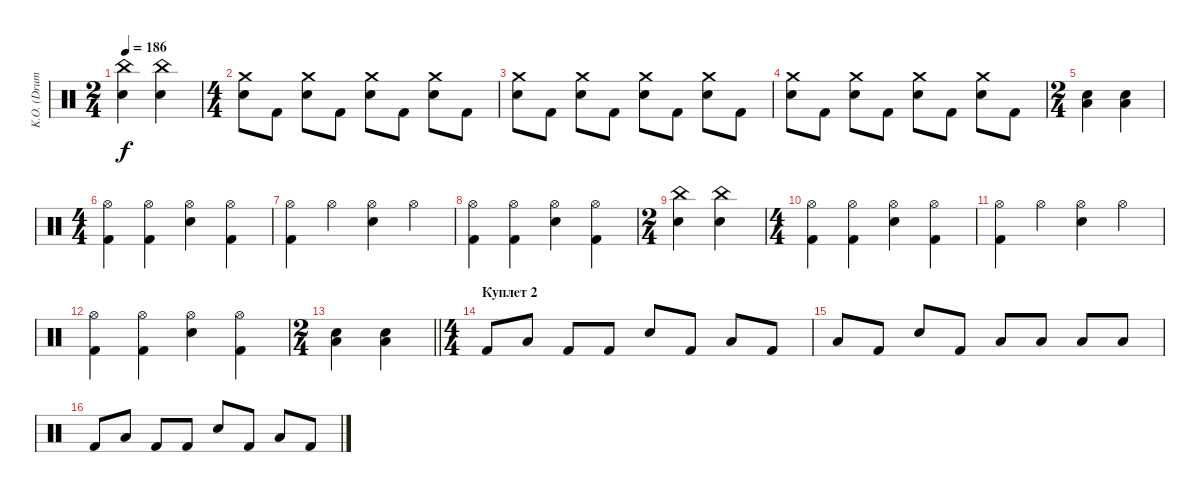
\track ("K.O. (Drums)" "K.O. (Drum") {instrument percussion}
\staff {score}
\articulation defaults
\ts (2 4)
\tempo 186
\clef neutral
\ks c
("China (hit)" "Electric Snare (hit)").4{dy f} ("China (hit)" "Electric Snare (hit)").4 |
\ts (4 4)
("Crash medium (hit)" "Electric Snare (hit)").8 "Kick (hit) 2".8 ("Crash medium (hit)" "Electric Snare (hit)").8 "Kick (hit) 2".8 ("Crash medium (hit)" "Electric Snare (hit)").8 "Kick (hit) 2".8 ("Crash medium (hit)" "Electric Snare (hit)").8 "Kick (hit) 2".8 |
("Crash medium (hit)" "Electric Snare (hit)").8 "Kick (hit) 2".8 ("Crash medium (hit)" "Electric Snare (hit)").8 "Kick (hit) 2".8 ("Crash medium (hit)" "Electric Snare (hit)").8 "Kick (hit) 2".8 ("Crash medium (hit)" "Electric Snare (hit)").8 "Kick (hit) 2".8 |
("Crash medium (hit)" "Electric Snare (hit)").8 "Kick (hit) 2".8 ("Crash medium (hit)" "Electric Snare (hit)").8 "Kick (hit) 2".8 ("Crash medium (hit)" "Electric Snare (hit)").8 "Kick (hit) 2".8 ("Crash medium (hit)" "Electric Snare (hit)").8 "Kick (hit) 2".8 |
\ts (2 4)
("Low Floor Tom (hit)" "Electric Snare (hit)").4 ("Low Floor Tom (hit)" "Electric Snare (hit)").4 |
\ts (4 4)
("Hi-Hat (open)" "Kick (hit) 2").4 ("Hi-Hat (open)" "Kick (hit) 2").4 ("Hi-Hat (open)" "Electric Snare (hit)").4 ("Hi-Hat (open)" "Kick (hit) 2").4 |
("Hi-Hat (open)" "Kick (hit) 2").4 "Hi-Hat (open)".4 ("Hi-Hat (open)" "Electric Snare (hit)").4 "Hi-Hat (open)".4 |
("Hi-Hat (open)" "Kick (hit) 2").4 ("Hi-Hat (open)" "Kick (hit) 2").4 ("Hi-Hat (open)" "Electric Snare (hit)").4 ("Hi-Hat (open)" "Kick (hit) 2").4 |
\ts (2 4)
("China (hit)" "Electric Snare (hit)").4 ("China (hit)" "Electric Snare (hit)").4 |
\ts (4 4)
("Hi-Hat (open)" "Kick (hit) 2").4 ("Hi-Hat (open)" "Kick (hit) 2").4 ("Hi-Hat (open)" "Electric Snare (hit)").4 ("Hi-Hat (open)" "Kick (hit) 2").4 |
("Hi-Hat (open)" "Kick (hit) 2").4 "Hi-Hat (open)".4 ("Hi-Hat (open)" "Electric Snare (hit)").4 "Hi-Hat (open)".4 |
("Hi-Hat (open)" "Kick (hit) 2").4 ("Hi-Hat (open)" "Kick (hit) 2").4 ("Hi-Hat (open)" "Electric Snare (hit)").4 ("Hi-Hat (open)" "Kick (hit) 2").4 |
\ts (2 4)
\barLineRight lightlight
("Low Floor Tom (hit)" "Electric Snare (hit)").4 ("Low Floor Tom (hit)" "Electric Snare (hit)").4 |
\ts (4 4)
\section ("" "Куплет 2")
"Kick (hit) 2".8 "Low Floor Tom (hit)".8 "Kick (hit) 2".8 "Kick (hit) 2".8 "Electric Snare (hit)".8 "Kick (hit) 2".8 "Low Tom (hit)".8 "Kick (hit) 2".8 |
"Low Floor Tom (hit)".8 "Kick (hit) 2".8 "Electric Snare (hit)".8 "Kick (hit) 2".8 "Low Tom (hit)".8 "Low Tom (hit)".8 "Low Floor Tom (hit)".8 "Low Floor Tom (hit)".8 |
"Kick (hit) 2".8 "Low Floor Tom (hit)".8 "Kick (hit) 2".8 "Kick (hit) 2".8 "Electric Snare (hit)".8 "Kick (hit) 2".8 "Low Tom (hit)".8 "Kick (hit) 2".8
